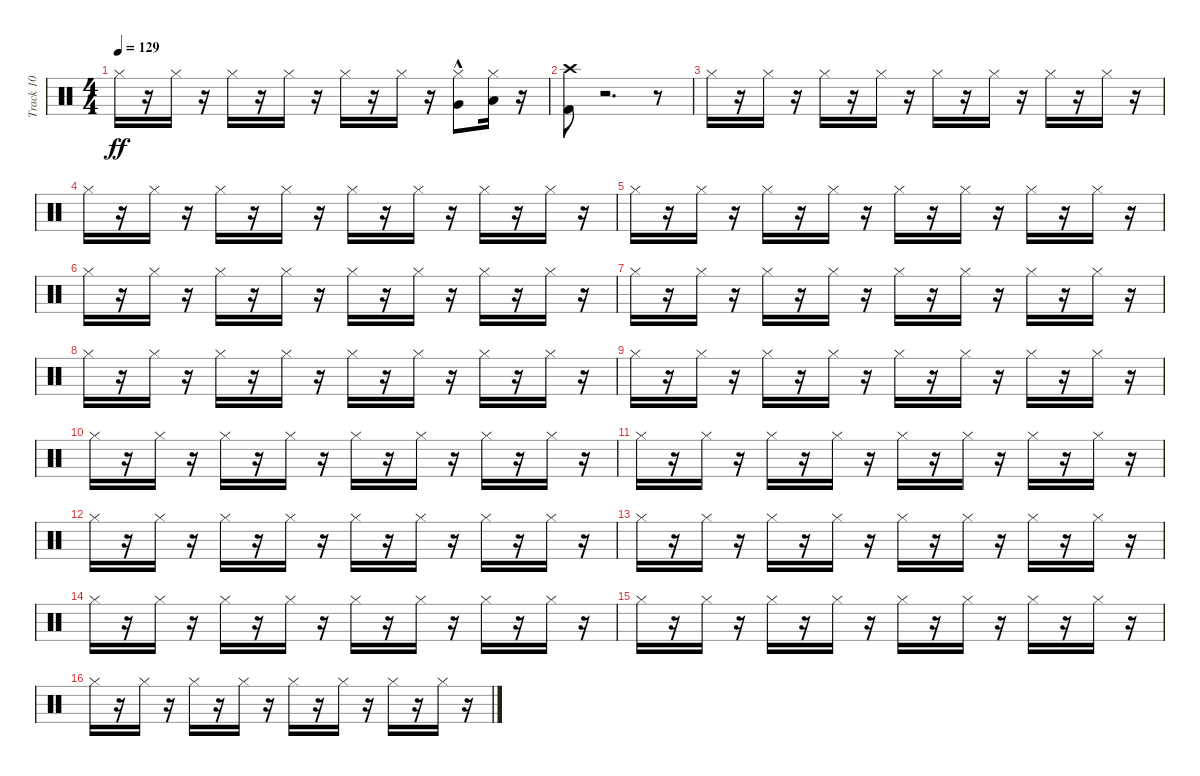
\track ("Track 10" "Track 10") {instrument percussion}
\staff {score}
\articulation defaults
\ts (4 4)
\tempo 129
\clef neutral
\ks c "Hi-Hat (closed)".16{dy ff}
r.16 "Hi-Hat (closed)".16 r.16 "Hi-Hat (closed)".16 r.16 "Hi-Hat (closed)".16 r.16 "Hi-Hat (closed)".16 r.16 "Hi-Hat (closed)".16 r.16 ("Hi-Hat (closed)" "Very Low Tom (hit)"{hac}).8 ("Hi-Hat (closed)" "Low Floor Tom (hit)").16 r.16 |
("Kick (hit) 2" "Crash high (hit)").8 r.2{d} r.8 |
"Hi-Hat (closed)".16 r.16 "Hi-Hat (closed)".16 r.16 "Hi-Hat (closed)".16 r.16 "Hi-Hat (closed)".16 r.16 "Hi-Hat (closed)".16 r.16 "Hi-Hat (closed)".16 r.16 "Hi-Hat (closed)".16 r.16 "Hi-Hat (closed)".16 r.16 |
"Hi-Hat (closed)".16 r.16 "Hi-Hat (closed)".16 r.16 "Hi-Hat (closed)".16 r.16 "Hi-Hat (closed)".16 r.16 "Hi-Hat (closed)".16 r.16 "Hi-Hat (closed)".16 r.16 "Hi-Hat (closed)".16 r.16 "Hi-Hat (closed)".16 r.16 |
"Hi-Hat (closed)".16 r.16 "Hi-Hat (closed)".16 r.16 "Hi-Hat (closed)".16 r.16 "Hi-Hat (closed)".16 r.16 "Hi-Hat (closed)".16 r.16 "Hi-Hat (closed)".16 r.16 "Hi-Hat (closed)".16 r.16 "Hi-Hat (closed)".16 r.16 |
"Hi-Hat (closed)".16 r.16 "Hi-Hat (closed)".16 r.16 "Hi-Hat (closed)".16 r.16 "Hi-Hat (closed)".16 r.16 "Hi-Hat (closed)".16 r.16 "Hi-Hat (closed)".16 r.16 "Hi-Hat (closed)".16 r.16 "Hi-Hat (closed)".16 r.16 |
"Hi-Hat (closed)".16 r.16 "Hi-Hat (closed)".16 r.16 "Hi-Hat (closed)".16 r.16 "Hi-Hat (closed)".16 r.16 "Hi-Hat (closed)".16 r.16 "Hi-Hat (closed)".16 r.16 "Hi-Hat (closed)".16 r.16 "Hi-Hat (closed)".16 r.16 |
"Hi-Hat (closed)".16 r.16 "Hi-Hat (closed)".16 r.16 "Hi-Hat (closed)".16 r.16 "Hi-Hat (closed)".16 r.16 "Hi-Hat (closed)".16 r.16 "Hi-Hat (closed)".16 r.16 "Hi-Hat (closed)".16 r.16 "Hi-Hat (closed)".16 r.16 |
"Hi-Hat (closed)".16 r.16 "Hi-Hat (closed)".16 r.16 "Hi-Hat (closed)".16 r.16 "Hi-Hat (closed)".16 r.16 "Hi-Hat (closed)".16 r.16 "Hi-Hat (closed)".16 r.16 "Hi-Hat (closed)".16 r.16 "Hi-Hat (closed)".16 r.16 |
"Hi-Hat (closed)".16 r.16 "Hi-Hat (closed)".16 r.16 "Hi-Hat (closed)".16 r.16 "Hi-Hat (closed)".16 r.16 "Hi-Hat (closed)".16 r.16 "Hi-Hat (closed)".16 r.16 "Hi-Hat (closed)".16 r.16 "Hi-Hat (closed)".16 r.16 |
"Hi-Hat (closed)".16 r.16 "Hi-Hat (closed)".16 r.16 "Hi-Hat (closed)".16 r.16 "Hi-Hat (closed)".16 r.16 "Hi-Hat (closed)".16 r.16 "Hi-Hat (closed)".16 r.16 "Hi-Hat (closed)".16 r.16 "Hi-Hat (closed)".16 r.16 |
"Hi-Hat (closed)".16 r.16 "Hi-Hat (closed)".16 r.16 "Hi-Hat (closed)".16 r.16 "Hi-Hat (closed)".16 r.16 "Hi-Hat (closed)".16 r.16 "Hi-Hat (closed)".16 r.16 "Hi-Hat (closed)".16 r.16 "Hi-Hat (closed)".16 r.16 |
"Hi-Hat (closed)".16 r.16 "Hi-Hat (closed)".16 r.16 "Hi-Hat (closed)".16 r.16 "Hi-Hat (closed)".16 r.16 "Hi-Hat (closed)".16 r.16 "Hi-Hat (closed)".16 r.16 "Hi-Hat (closed)".16 r.16 "Hi-Hat (closed)".16 r.16 |
"Hi-Hat (closed)".16 r.16 "Hi-Hat (closed)".16 r.16 "Hi-Hat (closed)".16 r.16 "Hi-Hat (closed)".16 r.16 "Hi-Hat (closed)".16 r.16 "Hi-Hat (closed)".16 r.16 "Hi-Hat (closed)".16 r.16 "Hi-Hat (closed)".16 r.16 |
"Hi-Hat (closed)".16 r.16 "Hi-Hat (closed)".16 r.16 "Hi-Hat (closed)".16 r.16 "Hi-Hat (closed)".16 r.16 "Hi-Hat (closed)".16 r.16 "Hi-Hat (closed)".16 r.16 "Hi-Hat (closed)".16 r.16 "Hi-Hat (closed)".16 r.16 |
"Hi-Hat (closed)".16 r.16 "Hi-Hat (closed)".16 r.16 "Hi-Hat (closed)".16 r.16 "Hi-Hat (closed)".16 r.16 "Hi-Hat (closed)".16 r.16 "Hi-Hat (closed)".16 r.16 "Hi-Hat (closed)".16 r.16 "Hi-Hat (closed)".16 r.16
